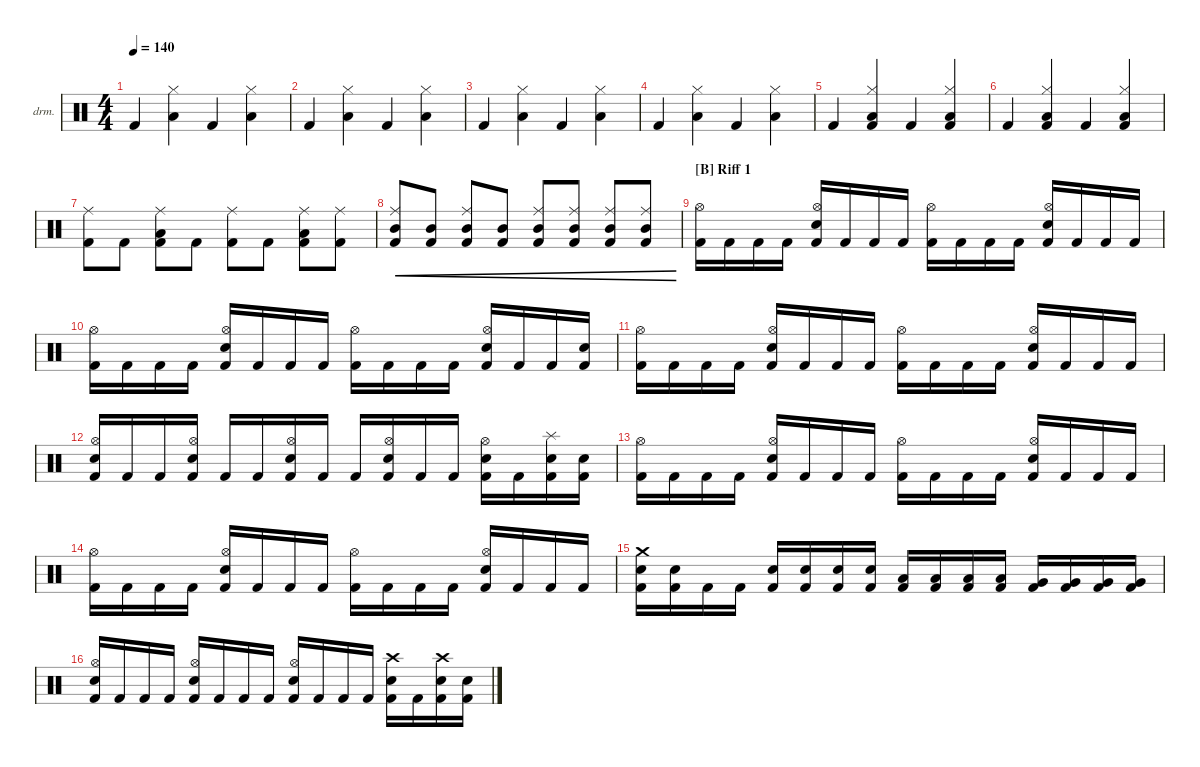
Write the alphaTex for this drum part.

\defaultSystemsLayout 4
\hideDynamics
\bracketExtendMode nobrackets
\firstSystemTrackNameOrientation horizontal
\otherSystemsTrackNameOrientation horizontal
\track ("Drumkit" "drm.") {instrument percussion}
\staff {score}
\articulation defaults
\ts (4 4)
\tempo 140
\clef neutral
\ks c "Kick (hit) 2".4{dy mf}
("Hi-Hat (closed)" "Low Tom (hit)").4 "Kick (hit) 2".4 ("Hi-Hat (closed)" "Low Tom (hit)").4 |
"Kick (hit) 2".4 ("Hi-Hat (closed)" "Low Tom (hit)").4 "Kick (hit) 2".4 ("Hi-Hat (closed)" "Low Tom (hit)").4 |
"Kick (hit) 2".4 ("Hi-Hat (closed)" "Low Tom (hit)").4 "Kick (hit) 2".4 ("Hi-Hat (closed)" "Low Tom (hit)").4 |
"Kick (hit) 2".4 ("Hi-Hat (closed)" "Low Tom (hit)").4 "Kick (hit) 2".4 ("Hi-Hat (closed)" "Low Tom (hit)").4 |
"Kick (hit) 2".4 ("Hi-Hat (closed)" "Low Tom (hit)" "Kick (hit) 2").4 "Kick (hit) 2".4 ("Hi-Hat (closed)" "Low Tom (hit)" "Kick (hit) 2").4 |
"Kick (hit) 2".4 ("Hi-Hat (closed)" "Low Tom (hit)" "Kick (hit) 2").4 "Kick (hit) 2".4 ("Hi-Hat (closed)" "Low Tom (hit)" "Kick (hit) 2").4 |
("Ride (middle)" "Kick (hit) 2").8 "Kick (hit) 2".8 ("Low Tom (hit)" "Ride (middle)" "Kick (hit) 2").8 "Kick (hit) 2".8 ("Ride (middle)" "Kick (hit) 2").8 "Kick (hit) 2".8 ("Low Tom (hit)" "Ride (middle)" "Kick (hit) 2").8 ("Ride (middle)" "Kick (hit) 2").8 |
("Mid Tom (hit)" "Kick (hit) 2" "Ride (middle)").8{cre} ("Mid Tom (hit)" "Kick (hit) 2").8{cre} ("Mid Tom (hit)" "Kick (hit) 2" "Ride (middle)").8{cre} ("Mid Tom (hit)" "Kick (hit) 2").8{cre} ("Mid Tom (hit)" "Kick (hit) 2" "Ride (middle)").8{cre} ("Mid Tom (hit)" "Kick (hit) 2" "Ride (middle)").8{cre} ("Mid Tom (hit)" "Kick (hit) 2" "Ride (middle)").8{cre} ("Mid Tom (hit)" "Kick (hit) 2" "Ride (middle)").8{cre} |
\section ("B" "Riff 1")
("Hi-Hat (open)" "Kick (hit) 2").16{dy ff} "Kick (hit) 2".16 "Kick (hit) 2".16 "Kick (hit) 2".16 ("Hi-Hat (open)" "Snare (hit) 2" "Kick (hit) 2").16 "Kick (hit) 2".16 "Kick (hit) 2".16 "Kick (hit) 2".16 ("Hi-Hat (open)" "Kick (hit) 2").16 "Kick (hit) 2".16 "Kick (hit) 2".16 "Kick (hit) 2".16 ("Hi-Hat (open)" "Snare (hit) 2" "Kick (hit) 2").16 "Kick (hit) 2".16 "Kick (hit) 2".16 "Kick (hit) 2".16 |
("Hi-Hat (open)" "Kick (hit) 2").16 "Kick (hit) 2".16 "Kick (hit) 2".16 "Kick (hit) 2".16 ("Hi-Hat (open)" "Snare (hit) 2" "Kick (hit) 2").16 "Kick (hit) 2".16 "Kick (hit) 2".16 "Kick (hit) 2".16 ("Hi-Hat (open)" "Kick (hit) 2").16 "Kick (hit) 2".16 "Kick (hit) 2".16 "Kick (hit) 2".16 ("Hi-Hat (open)" "Snare (hit) 2" "Kick (hit) 2").16 "Kick (hit) 2".16 "Kick (hit) 2".16 ("Snare (hit) 2" "Kick (hit) 2").16 |
("Hi-Hat (open)" "Kick (hit) 2").16 "Kick (hit) 2".16 "Kick (hit) 2".16 "Kick (hit) 2".16 ("Hi-Hat (open)" "Snare (hit) 2" "Kick (hit) 2").16 "Kick (hit) 2".16 "Kick (hit) 2".16 "Kick (hit) 2".16 ("Hi-Hat (open)" "Kick (hit) 2").16 "Kick (hit) 2".16 "Kick (hit) 2".16 "Kick (hit) 2".16 ("Hi-Hat (open)" "Snare (hit) 2" "Kick (hit) 2").16 "Kick (hit) 2".16 "Kick (hit) 2".16 "Kick (hit) 2".16 |
("Hi-Hat (open)" "Snare (hit) 2" "Kick (hit) 2").16 "Kick (hit) 2".16 "Kick (hit) 2".16 ("Hi-Hat (open)" "Snare (hit) 2" "Kick (hit) 2").16 "Kick (hit) 2".16 "Kick (hit) 2".16 ("Hi-Hat (open)" "Snare (hit) 2" "Kick (hit) 2").16 "Kick (hit) 2".16 "Kick (hit) 2".16 ("Hi-Hat (open)" "Snare (hit) 2" "Kick (hit) 2").16 "Kick (hit) 2".16 "Kick (hit) 2".16 ("Hi-Hat (open)" "Snare (hit) 2" "Kick (hit) 2").16 "Kick (hit) 2".16 ("Splash (hit)" "Snare (hit) 2" "Kick (hit) 2").16 ("Snare (hit) 2" "Kick (hit) 2").16 |
("Hi-Hat (open)" "Kick (hit) 2").16 "Kick (hit) 2".16 "Kick (hit) 2".16 "Kick (hit) 2".16 ("Hi-Hat (open)" "Snare (hit) 2" "Kick (hit) 2").16 "Kick (hit) 2".16 "Kick (hit) 2".16 "Kick (hit) 2".16 ("Hi-Hat (open)" "Kick (hit) 2").16 "Kick (hit) 2".16 "Kick (hit) 2".16 "Kick (hit) 2".16 ("Hi-Hat (open)" "Snare (hit) 2" "Kick (hit) 2").16 "Kick (hit) 2".16 "Kick (hit) 2".16 "Kick (hit) 2".16 |
("Hi-Hat (open)" "Kick (hit) 2").16 "Kick (hit) 2".16 "Kick (hit) 2".16 "Kick (hit) 2".16 ("Hi-Hat (open)" "Snare (hit) 2" "Kick (hit) 2").16 "Kick (hit) 2".16 "Kick (hit) 2".16 "Kick (hit) 2".16 ("Hi-Hat (open)" "Kick (hit) 2").16 "Kick (hit) 2".16 "Kick (hit) 2".16 "Kick (hit) 2".16 ("Hi-Hat (open)" "Snare (hit) 2" "Kick (hit) 2").16 "Kick (hit) 2".16 "Kick (hit) 2".16 "Kick (hit) 2".16 |
("Crash medium (hit)" "Snare (hit) 2" "Kick (hit) 2").16{dy mf} ("Snare (hit) 2" "Kick (hit) 2").16 "Kick (hit) 2".16 "Kick (hit) 2".16 ("Snare (hit) 2" "Kick (hit) 2").16 ("Snare (hit) 2" "Kick (hit) 2").16 ("Snare (hit) 2" "Kick (hit) 2").16 ("Snare (hit) 2" "Kick (hit) 2").16 ("Low Tom (hit)" "Kick (hit) 2").16 ("Low Tom (hit)" "Kick (hit) 2").16 ("Low Tom (hit)" "Kick (hit) 2").16 ("Low Tom (hit)" "Kick (hit) 2").16 ("Very Low Tom (hit)" "Kick (hit) 2").16 ("Very Low Tom (hit)" "Kick (hit) 2").16 ("Very Low Tom (hit)" "Kick (hit) 2").16 ("Very Low Tom (hit)" "Kick (hit) 2").16 |
("Hi-Hat (open)" "Snare (hit) 2" "Kick (hit) 2").16 "Kick (hit) 2".16 "Kick (hit) 2".16 "Kick (hit) 2".16 ("Hi-Hat (open)" "Snare (hit) 2" "Kick (hit) 2").16 "Kick (hit) 2".16 "Kick (hit) 2".16 "Kick (hit) 2".16 ("Hi-Hat (open)" "Snare (hit) 2" "Kick (hit) 2").16 "Kick (hit) 2".16 "Kick (hit) 2".16 "Kick (hit) 2".16 ("Crash high (hit)" "Snare (hit) 2" "Kick (hit) 2").16 "Kick (hit) 2".16 ("Crash high (hit)" "Snare (hit) 2" "Kick (hit) 2").16 ("Snare (hit) 2" "Kick (hit) 2").16
